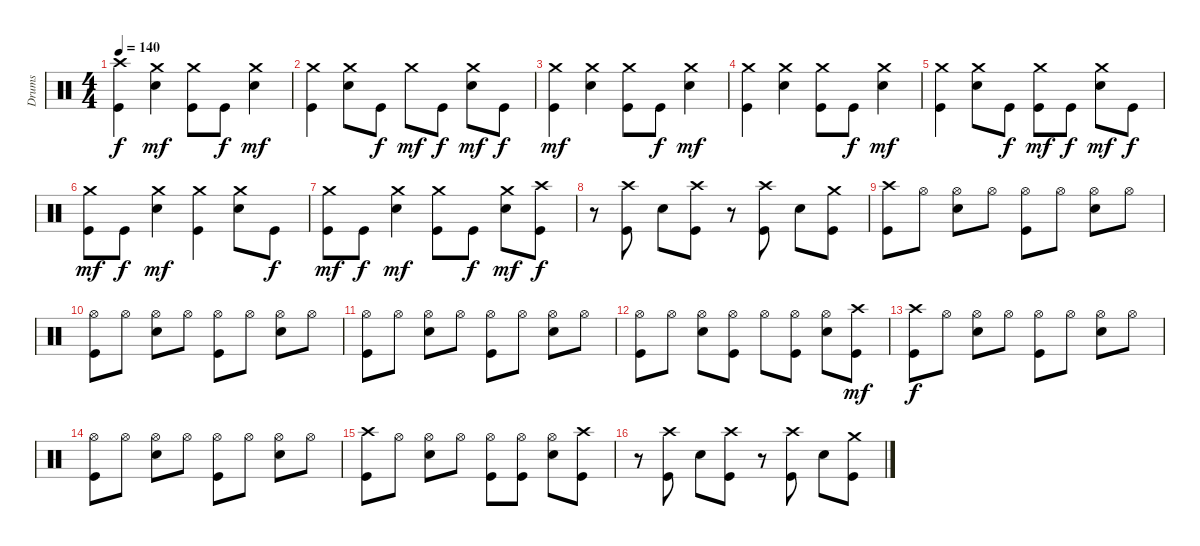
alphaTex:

\track ("Drums" "Drums") {instrument percussion}
\staff {score}
\articulation defaults
\ts (4 4)
\tempo 140
\clef neutral
\ks c
("Kick (hit)" "Crash high (hit)").4{dy f} ("Snare (hit) 2" "Crash medium (hit)").4{dy mf} ("Kick (hit)" "Crash medium (hit)").8 "Kick (hit)".8{dy f} ("Snare (hit) 2" "Crash medium (hit)").4{dy mf} |
("Kick (hit)" "Crash medium (hit)").4 ("Snare (hit) 2" "Crash medium (hit)").8 "Kick (hit)".8{dy f} "Crash medium (hit)".8{dy mf} "Kick (hit)".8{dy f} ("Snare (hit) 2" "Crash medium (hit)").8{dy mf} "Kick (hit)".8{dy f} |
("Kick (hit)" "Crash medium (hit)").4{dy mf} ("Snare (hit) 2" "Crash medium (hit)").4 ("Kick (hit)" "Crash medium (hit)").8 "Kick (hit)".8{dy f} ("Snare (hit) 2" "Crash medium (hit)").4{dy mf} |
("Kick (hit)" "Crash medium (hit)").4 ("Snare (hit) 2" "Crash medium (hit)").4 ("Kick (hit)" "Crash medium (hit)").8 "Kick (hit)".8{dy f} ("Snare (hit) 2" "Crash medium (hit)").4{dy mf} |
("Kick (hit)" "Crash medium (hit)").4 ("Snare (hit) 2" "Crash medium (hit)").8 "Kick (hit)".8{dy f} ("Kick (hit)" "Crash medium (hit)").8{dy mf} "Kick (hit)".8{dy f} ("Snare (hit) 2" "Crash medium (hit)").8{dy mf} "Kick (hit)".8{dy f} |
("Kick (hit)" "Crash medium (hit)").8{dy mf} "Kick (hit)".8{dy f} ("Snare (hit) 2" "Crash medium (hit)").4{dy mf} ("Kick (hit)" "Crash medium (hit)").4 ("Snare (hit) 2" "Crash medium (hit)").8 "Kick (hit)".8{dy f} |
("Kick (hit)" "Crash medium (hit)").8{dy mf} "Kick (hit)".8{dy f} ("Snare (hit) 2" "Crash medium (hit)").4{dy mf} ("Kick (hit)" "Crash medium (hit)").8 "Kick (hit)".8{dy f} ("Snare (hit) 2" "Crash medium (hit)").8{dy mf} ("Kick (hit)" "Crash high (hit)").8{dy f} |
r.8 ("Kick (hit)" "Crash high (hit)").8 "Snare (hit) 2".8 ("Kick (hit)" "Crash high (hit)").8 r.8 ("Kick (hit)" "Crash high (hit)").8 "Snare (hit) 2".8 ("Kick (hit)" "Crash medium (hit)").8 |
("Kick (hit)" "Crash high (hit)").8 "Hi-Hat (open)".8 ("Snare (hit) 2" "Hi-Hat (open)").8 "Hi-Hat (open)".8 ("Kick (hit)" "Hi-Hat (open)").8 "Hi-Hat (open)".8 ("Snare (hit) 2" "Hi-Hat (open)").8 "Hi-Hat (open)".8 |
("Kick (hit)" "Hi-Hat (open)").8 "Hi-Hat (open)".8 ("Snare (hit) 2" "Hi-Hat (open)").8 "Hi-Hat (open)".8 ("Kick (hit)" "Hi-Hat (open)").8 "Hi-Hat (open)".8 ("Snare (hit) 2" "Hi-Hat (open)").8 "Hi-Hat (open)".8 |
("Kick (hit)" "Hi-Hat (open)").8 "Hi-Hat (open)".8 ("Snare (hit) 2" "Hi-Hat (open)").8 "Hi-Hat (open)".8 ("Kick (hit)" "Hi-Hat (open)").8 "Hi-Hat (open)".8 ("Snare (hit) 2" "Hi-Hat (open)").8 "Hi-Hat (open)".8 |
("Kick (hit)" "Hi-Hat (open)").8 "Hi-Hat (open)".8 ("Snare (hit) 2" "Hi-Hat (open)").8 ("Kick (hit)" "Hi-Hat (open)").8 "Hi-Hat (open)".8 ("Kick (hit)" "Hi-Hat (open)").8 ("Snare (hit) 2" "Hi-Hat (open)").8 ("Kick (hit)" "Crash high (hit)").8{dy mf} |
("Kick (hit)" "Crash high (hit)").8{dy f} "Hi-Hat (open)".8 ("Snare (hit) 2" "Hi-Hat (open)").8 "Hi-Hat (open)".8 ("Kick (hit)" "Hi-Hat (open)").8 "Hi-Hat (open)".8 ("Snare (hit) 2" "Hi-Hat (open)").8 "Hi-Hat (open)".8 |
("Kick (hit)" "Hi-Hat (open)").8 "Hi-Hat (open)".8 ("Snare (hit) 2" "Hi-Hat (open)").8 "Hi-Hat (open)".8 ("Kick (hit)" "Hi-Hat (open)").8 "Hi-Hat (open)".8 ("Snare (hit) 2" "Hi-Hat (open)").8 "Hi-Hat (open)".8 |
("Kick (hit)" "Crash high (hit)").8 "Hi-Hat (open)".8 ("Snare (hit) 2" "Hi-Hat (open)").8 "Hi-Hat (open)".8 ("Kick (hit)" "Hi-Hat (open)").8 ("Kick (hit)" "Hi-Hat (open)").8 ("Snare (hit) 2" "Hi-Hat (open)").8 ("Kick (hit)" "Crash high (hit)").8 |
r.8 ("Kick (hit)" "Crash high (hit)").8 "Snare (hit) 2".8 ("Kick (hit)" "Crash high (hit)").8 r.8 ("Kick (hit)" "Crash high (hit)").8 "Snare (hit) 2".8 ("Kick (hit)" "Crash medium (hit)").8
